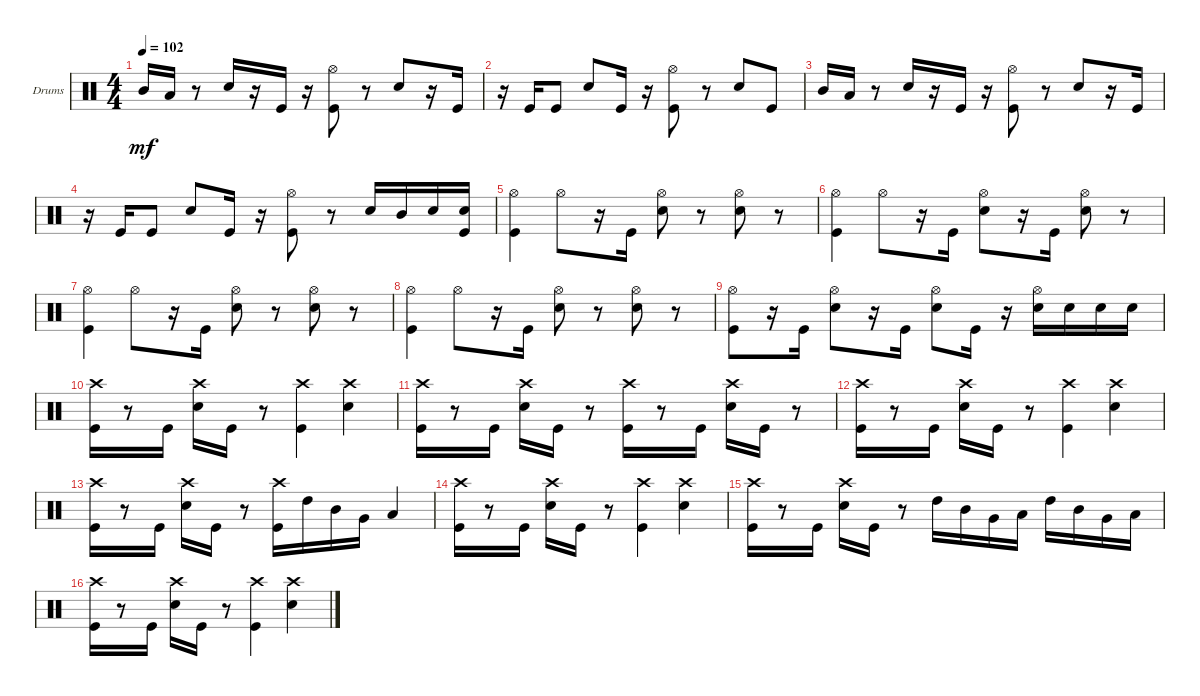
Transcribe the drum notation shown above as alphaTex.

\defaultSystemsLayout 4
\bracketExtendMode groupsimilarinstruments
\firstSystemTrackNameOrientation horizontal
\otherSystemsTrackNameOrientation horizontal
\track ("Drumkit" "Drums") {instrument percussion}
\staff {score}
\articulation defaults
\ts (4 4)
\tempo 102
\clef neutral
\scale
0.333333
\ks c "Mid Tom (hit)".16{dy mf} "Low Tom (hit)".16
r.8 "Snare (hit) 2".16 r.16 "Kick (hit)".16 r.16 ("Hi-Hat (open)" "Kick (hit)").8 r.8 "Snare (hit) 2".8 r.16 "Kick (hit)".16 |
\scale
0.333333 r.16 "Kick (hit)".16 "Kick (hit)".8 "Snare (hit) 2".8 "Kick (hit)".16 r.16 ("Hi-Hat (open)" "Kick (hit)").8 r.8 "Snare (hit) 2".8 "Kick (hit)".8 |
\scale
0.333333 "Mid Tom (hit)".16 "Low Tom (hit)".16 r.8 "Snare (hit) 2".16 r.16 "Kick (hit)".16 r.16 ("Hi-Hat (open)" "Kick (hit)").8 r.8 "Snare (hit) 2".8 r.16 "Kick (hit)".16 |
\scale
0.333333 r.16 "Kick (hit)".16 "Kick (hit)".8 "Snare (hit) 2".8 "Kick (hit)".16 r.16 ("Hi-Hat (open)" "Kick (hit)").8 r.8 "Snare (hit) 2".16 "Mid Tom (hit)".16 "Snare (hit) 2".16 ("Kick (hit)" "Snare (hit) 2").16 |
\scale
0.333333 ("Hi-Hat (open)" "Kick (hit)").4 "Hi-Hat (open)".8 r.16 "Kick (hit)".16 ("Hi-Hat (open)" "Snare (hit) 2").8 r.8 ("Hi-Hat (open)" "Snare (hit) 2").8 r.8 |
\scale
0.333333 ("Hi-Hat (open)" "Kick (hit)").4 "Hi-Hat (open)".8 r.16 "Kick (hit)".16 ("Hi-Hat (open)" "Snare (hit) 2").8 r.16 "Kick (hit)".16 ("Hi-Hat (open)" "Snare (hit) 2").8 r.8 |
\scale
0.333333 ("Hi-Hat (open)" "Kick (hit)").4 "Hi-Hat (open)".8 r.16 "Kick (hit)".16 ("Hi-Hat (open)" "Snare (hit) 2").8 r.8 ("Hi-Hat (open)" "Snare (hit) 2").8 r.8 |
("Hi-Hat (open)" "Kick (hit)").4 "Hi-Hat (open)".8 r.16 "Kick (hit)".16 ("Hi-Hat (open)" "Snare (hit) 2").8 r.8 ("Hi-Hat (open)" "Snare (hit) 2").8 r.8 |
\scale
0.333333 ("Hi-Hat (open)" "Kick (hit)").8 r.16 "Kick (hit)".16 ("Hi-Hat (open)" "Snare (hit) 2").8 r.16 "Kick (hit)".16 ("Hi-Hat (open)" "Snare (hit) 2").8 "Kick (hit)".16 r.16 ("Hi-Hat (open)" "Snare (hit) 2").16 "Snare (hit) 2".16 "Snare (hit) 2".16 "Snare (hit) 2".16 |
\scale
0.333333 ("Crash high (hit)" "Kick (hit)").16 r.8 "Kick (hit)".16 ("Crash high (hit)" "Snare (hit) 2").16 "Kick (hit)".16 r.8 ("Crash high (hit)" "Kick (hit)").4 ("Crash high (hit)" "Snare (hit) 2").4 |
\scale
0.333333 ("Crash high (hit)" "Kick (hit)").16 r.8 "Kick (hit)".16 ("Crash high (hit)" "Snare (hit) 2").16 "Kick (hit)".16 r.8 ("Crash high (hit)" "Kick (hit)").16 r.8 "Kick (hit)".16 ("Crash high (hit)" "Snare (hit) 2").16 "Kick (hit)".16 r.8 |
\scale
0.333333 ("Crash high (hit)" "Kick (hit)").16 r.8 "Kick (hit)".16 ("Crash high (hit)" "Snare (hit) 2").16 "Kick (hit)".16 r.8 ("Crash high (hit)" "Kick (hit)").4 ("Crash high (hit)" "Snare (hit) 2").4 |
\scale
0.333333 ("Crash high (hit)" "Kick (hit)").16 r.8 "Kick (hit)".16 ("Crash high (hit)" "Snare (hit) 2").16 "Kick (hit)".16 r.8 ("Crash high (hit)" "Kick (hit)").16 "High Tom (hit)".16 "Mid Tom (hit)".16 "Very Low Tom (hit)".16 "Low Tom (hit)".4 |
\scale
0.333333 ("Crash high (hit)" "Kick (hit)").16 r.8 "Kick (hit)".16 ("Crash high (hit)" "Snare (hit) 2").16 "Kick (hit)".16 r.8 ("Crash high (hit)" "Kick (hit)").4 ("Crash high (hit)" "Snare (hit) 2").4 |
\scale
0.333333 ("Crash high (hit)" "Kick (hit)").16 r.8 "Kick (hit)".16 ("Crash high (hit)" "Snare (hit) 2").16 "Kick (hit)".16 r.8 "High Tom (hit)".16 "Mid Tom (hit)".16 "Very Low Tom (hit)".16 "Low Tom (hit)".16 "High Tom (hit)".16 "Mid Tom (hit)".16 "Very Low Tom (hit)".16 "Low Tom (hit)".16 |
\scale
0.333333 ("Crash high (hit)" "Kick (hit)").16 r.8 "Kick (hit)".16 ("Crash high (hit)" "Snare (hit) 2").16 "Kick (hit)".16 r.8 ("Crash high (hit)" "Kick (hit)").4 ("Crash high (hit)" "Snare (hit) 2").4
